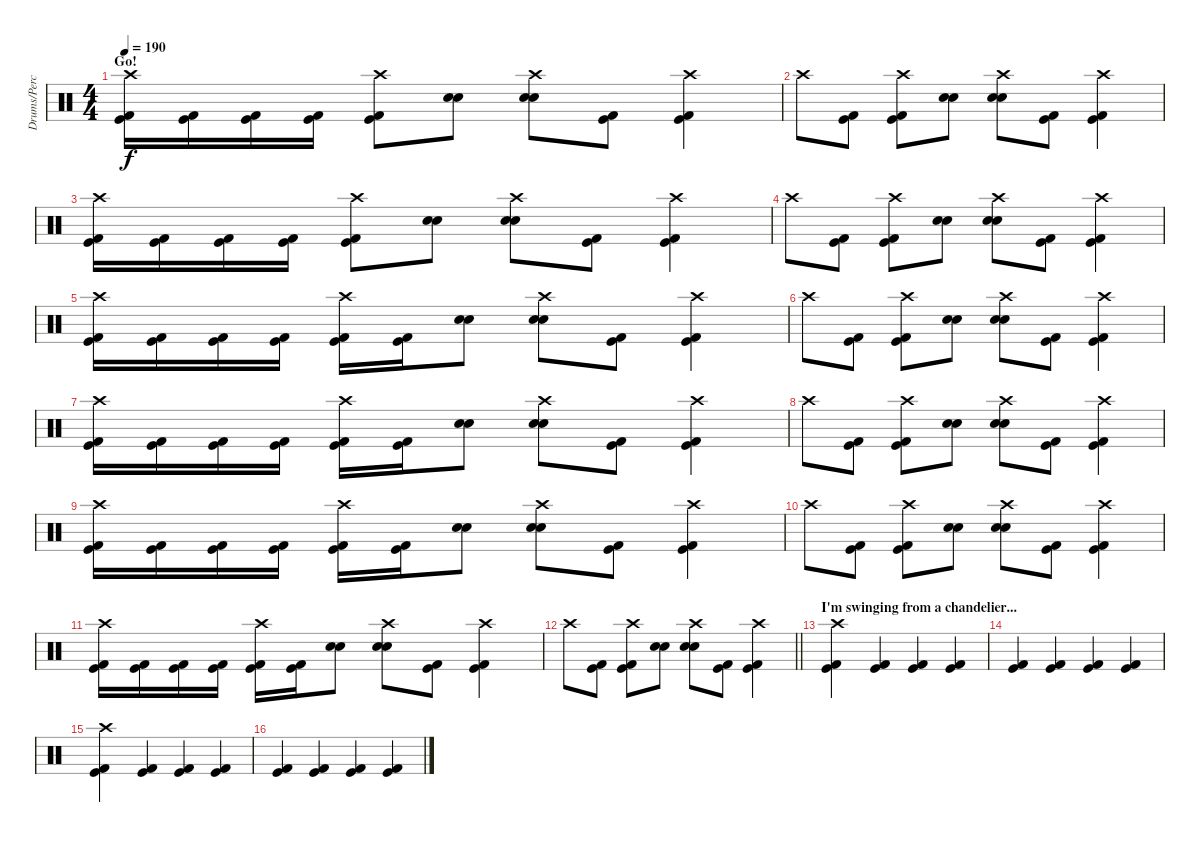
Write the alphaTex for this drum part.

\track ("Drums/Percussion" "Drums/Perc") {instrument percussion}
\staff {score}
\articulation defaults
\ts (4 4)
\section ("" "Go!")
\tempo 190
\clef neutral
\ks c
("Crash high (hit)" "Kick (hit)" "Kick (hit) 2").16{dy f} ("Kick (hit)" "Kick (hit) 2").16 ("Kick (hit)" "Kick (hit) 2").16 ("Kick (hit)" "Kick (hit) 2").16 ("Crash high (hit)" "Kick (hit)" "Kick (hit) 2").8 ("Electric Snare (hit)" "Snare (hit) 2").8 ("Crash high (hit)" "Electric Snare (hit)" "Snare (hit) 2").8 ("Kick (hit)" "Kick (hit) 2").8 ("Crash high (hit)" "Kick (hit)" "Kick (hit) 2").4 |
"Crash high (hit)".8 ("Kick (hit)" "Kick (hit) 2").8 ("Crash high (hit)" "Kick (hit)" "Kick (hit) 2").8 ("Electric Snare (hit)" "Snare (hit) 2").8 ("Crash high (hit)" "Electric Snare (hit)" "Snare (hit) 2").8 ("Kick (hit)" "Kick (hit) 2").8 ("Crash high (hit)" "Kick (hit)" "Kick (hit) 2").4 |
("Crash high (hit)" "Kick (hit)" "Kick (hit) 2").16 ("Kick (hit)" "Kick (hit) 2").16 ("Kick (hit)" "Kick (hit) 2").16 ("Kick (hit)" "Kick (hit) 2").16 ("Crash high (hit)" "Kick (hit)" "Kick (hit) 2").8 ("Electric Snare (hit)" "Snare (hit) 2").8 ("Crash high (hit)" "Electric Snare (hit)" "Snare (hit) 2").8 ("Kick (hit)" "Kick (hit) 2").8 ("Crash high (hit)" "Kick (hit)" "Kick (hit) 2").4 |
"Crash high (hit)".8 ("Kick (hit)" "Kick (hit) 2").8 ("Crash high (hit)" "Kick (hit)" "Kick (hit) 2").8 ("Electric Snare (hit)" "Snare (hit) 2").8 ("Crash high (hit)" "Electric Snare (hit)" "Snare (hit) 2").8 ("Kick (hit)" "Kick (hit) 2").8 ("Crash high (hit)" "Kick (hit)" "Kick (hit) 2").4 |
("Crash high (hit)" "Kick (hit)" "Kick (hit) 2").16 ("Kick (hit)" "Kick (hit) 2").16 ("Kick (hit)" "Kick (hit) 2").16 ("Kick (hit)" "Kick (hit) 2").16 ("Crash high (hit)" "Kick (hit)" "Kick (hit) 2").16 ("Kick (hit)" "Kick (hit) 2").16 ("Electric Snare (hit)" "Snare (hit) 2").8 ("Crash high (hit)" "Electric Snare (hit)" "Snare (hit) 2").8 ("Kick (hit)" "Kick (hit) 2").8 ("Crash high (hit)" "Kick (hit)" "Kick (hit) 2").4 |
"Crash high (hit)".8 ("Kick (hit)" "Kick (hit) 2").8 ("Crash high (hit)" "Kick (hit)" "Kick (hit) 2").8 ("Electric Snare (hit)" "Snare (hit) 2").8 ("Crash high (hit)" "Electric Snare (hit)" "Snare (hit) 2").8 ("Kick (hit)" "Kick (hit) 2").8 ("Crash high (hit)" "Kick (hit)" "Kick (hit) 2").4 |
("Crash high (hit)" "Kick (hit)" "Kick (hit) 2").16 ("Kick (hit)" "Kick (hit) 2").16 ("Kick (hit)" "Kick (hit) 2").16 ("Kick (hit)" "Kick (hit) 2").16 ("Crash high (hit)" "Kick (hit)" "Kick (hit) 2").16 ("Kick (hit)" "Kick (hit) 2").16 ("Electric Snare (hit)" "Snare (hit) 2").8 ("Crash high (hit)" "Electric Snare (hit)" "Snare (hit) 2").8 ("Kick (hit)" "Kick (hit) 2").8 ("Crash high (hit)" "Kick (hit)" "Kick (hit) 2").4 |
"Crash high (hit)".8 ("Kick (hit)" "Kick (hit) 2").8 ("Crash high (hit)" "Kick (hit)" "Kick (hit) 2").8 ("Electric Snare (hit)" "Snare (hit) 2").8 ("Crash high (hit)" "Electric Snare (hit)" "Snare (hit) 2").8 ("Kick (hit)" "Kick (hit) 2").8 ("Crash high (hit)" "Kick (hit)" "Kick (hit) 2").4 |
("Crash high (hit)" "Kick (hit)" "Kick (hit) 2").16 ("Kick (hit)" "Kick (hit) 2").16 ("Kick (hit)" "Kick (hit) 2").16 ("Kick (hit)" "Kick (hit) 2").16 ("Crash high (hit)" "Kick (hit)" "Kick (hit) 2").16 ("Kick (hit)" "Kick (hit) 2").16 ("Electric Snare (hit)" "Snare (hit) 2").8 ("Crash high (hit)" "Electric Snare (hit)" "Snare (hit) 2").8 ("Kick (hit)" "Kick (hit) 2").8 ("Crash high (hit)" "Kick (hit)" "Kick (hit) 2").4 |
"Crash high (hit)".8 ("Kick (hit)" "Kick (hit) 2").8 ("Crash high (hit)" "Kick (hit)" "Kick (hit) 2").8 ("Electric Snare (hit)" "Snare (hit) 2").8 ("Crash high (hit)" "Electric Snare (hit)" "Snare (hit) 2").8 ("Kick (hit)" "Kick (hit) 2").8 ("Crash high (hit)" "Kick (hit)" "Kick (hit) 2").4 |
("Crash high (hit)" "Kick (hit)" "Kick (hit) 2").16 ("Kick (hit)" "Kick (hit) 2").16 ("Kick (hit)" "Kick (hit) 2").16 ("Kick (hit)" "Kick (hit) 2").16 ("Crash high (hit)" "Kick (hit)" "Kick (hit) 2").16 ("Kick (hit)" "Kick (hit) 2").16 ("Electric Snare (hit)" "Snare (hit) 2").8 ("Crash high (hit)" "Electric Snare (hit)" "Snare (hit) 2").8 ("Kick (hit)" "Kick (hit) 2").8 ("Crash high (hit)" "Kick (hit)" "Kick (hit) 2").4 |
\barLineRight lightlight "Crash high (hit)".8
("Kick (hit)" "Kick (hit) 2").8 ("Crash high (hit)" "Kick (hit)" "Kick (hit) 2").8 ("Electric Snare (hit)" "Snare (hit) 2").8 ("Crash high (hit)" "Electric Snare (hit)" "Snare (hit) 2").8 ("Kick (hit)" "Kick (hit) 2").8 ("Crash high (hit)" "Kick (hit)" "Kick (hit) 2").4 |
\section ("" "I'm swinging from a chandelier...")
("Crash high (hit)" "Kick (hit)" "Kick (hit) 2").4 ("Kick (hit)" "Kick (hit) 2").4 ("Kick (hit)" "Kick (hit) 2").4 ("Kick (hit)" "Kick (hit) 2").4 |
("Kick (hit)" "Kick (hit) 2").4 ("Kick (hit)" "Kick (hit) 2").4 ("Kick (hit)" "Kick (hit) 2").4 ("Kick (hit)" "Kick (hit) 2").4 |
("Crash high (hit)" "Kick (hit)" "Kick (hit) 2").4 ("Kick (hit)" "Kick (hit) 2").4 ("Kick (hit)" "Kick (hit) 2").4 ("Kick (hit)" "Kick (hit) 2").4 |
("Kick (hit)" "Kick (hit) 2").4 ("Kick (hit)" "Kick (hit) 2").4 ("Kick (hit)" "Kick (hit) 2").4 ("Kick (hit)" "Kick (hit) 2").4
